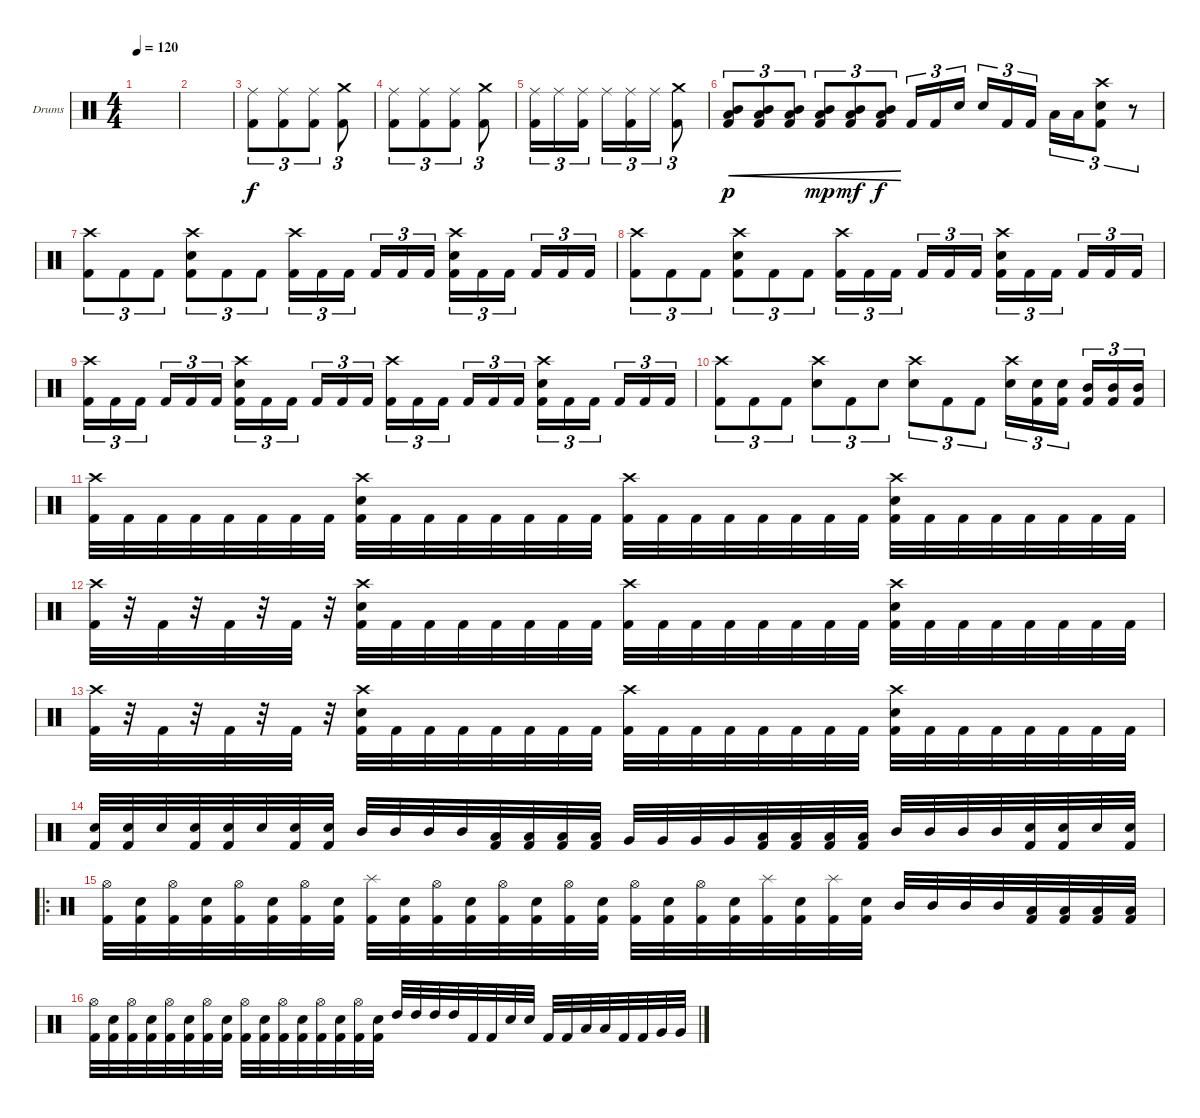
\defaultSystemsLayout 4
\bracketExtendMode groupsimilarinstruments
\firstSystemTrackNameOrientation horizontal
\otherSystemsTrackNameOrientation horizontal
\track ("Drumkit" "Drums") {instrument percussion}
\staff {score}
\articulation defaults
\ts (4 4)
\tempo 120
\clef neutral
\ks c
|
|
("Kick (hit) 2" "Ride (middle)").8{tu (3 2)} ("Kick (hit) 2" "Ride (middle)").8{tu (3 2)} ("Kick (hit) 2" "Ride (middle)").8{tu (3 2)} ("Kick (hit) 2" "Crash medium (hit)").8{tu (3 2)} |
("Kick (hit) 2" "Ride (middle)").8{tu (3 2)} ("Kick (hit) 2" "Ride (middle)").8{tu (3 2)} ("Kick (hit) 2" "Ride (middle)").8{tu (3 2)} ("Kick (hit) 2" "Crash medium (hit)").8{tu (3 2)} |
("Ride (middle)" "Kick (hit) 2").16{tu (3 2) dy f} "Ride (middle)".16{tu (3 2)} ("Ride (middle)" "Kick (hit) 2").16{tu (3 2)} "Ride (middle)".16{tu (3 2)} ("Ride (middle)" "Kick (hit) 2").16{tu (3 2)} "Ride (middle)".16{tu (3 2)} ("Kick (hit) 2" "Crash medium (hit)").8{tu (3 2)} |
("Kick (hit) 2" "Low Tom (hit)" "Mid Tom (hit)").8{tu (3 2) cre dy p} ("Kick (hit) 2" "Low Tom (hit)" "Mid Tom (hit)").8{tu (3 2) cre} ("Kick (hit) 2" "Low Tom (hit)" "Mid Tom (hit)").8{tu (3 2) cre} ("Kick (hit) 2" "Low Tom (hit)" "Mid Tom (hit)").8{tu (3 2) cre dy mp} ("Kick (hit) 2" "Low Tom (hit)" "Mid Tom (hit)").8{tu (3 2) cre dy mf} ("Kick (hit) 2" "Low Tom (hit)" "Mid Tom (hit)").8{tu (3 2) cre dy f} "Kick (hit) 2".16{tu (3 2)} "Kick (hit) 2".16{tu (3 2)} "Snare (hit) 2".16{tu (3 2)} "Snare (hit) 2".16{tu (3 2)} "Kick (hit) 2".16{tu (3 2)} "Kick (hit) 2".16{tu (3 2)} "Low Tom (hit)".16{tu (3 2)} "Low Tom (hit)".16{tu (3 2)} ("Kick (hit) 2" "Snare (hit) 2" "Crash high (hit)").8{tu (3 2)} r.8{tu (3 2)} |
("Kick (hit) 2" "Crash high (hit)").8{tu (3 2)} "Kick (hit) 2".8{tu (3 2)} "Kick (hit) 2".8{tu (3 2)} ("Kick (hit) 2" "Snare (hit) 2" "Crash high (hit)").8{tu (3 2)} "Kick (hit) 2".8{tu (3 2)} "Kick (hit) 2".8{tu (3 2)} ("Kick (hit) 2" "Crash high (hit)").16{tu (3 2)} "Kick (hit) 2".16{tu (3 2)} "Kick (hit) 2".16{tu (3 2)} "Kick (hit) 2".16{tu (3 2)} "Kick (hit) 2".16{tu (3 2)} "Kick (hit) 2".16{tu (3 2)} ("Kick (hit) 2" "Snare (hit) 2" "Crash high (hit)").16{tu (3 2)} "Kick (hit) 2".16{tu (3 2)} "Kick (hit) 2".16{tu (3 2)} "Kick (hit) 2".16{tu (3 2)} "Kick (hit) 2".16{tu (3 2)} "Kick (hit) 2".16{tu (3 2)} |
("Kick (hit) 2" "Crash high (hit)").8{tu (3 2)} "Kick (hit) 2".8{tu (3 2)} "Kick (hit) 2".8{tu (3 2)} ("Kick (hit) 2" "Snare (hit) 2" "Crash high (hit)").8{tu (3 2)} "Kick (hit) 2".8{tu (3 2)} "Kick (hit) 2".8{tu (3 2)} ("Kick (hit) 2" "Crash high (hit)").16{tu (3 2)} "Kick (hit) 2".16{tu (3 2)} "Kick (hit) 2".16{tu (3 2)} "Kick (hit) 2".16{tu (3 2)} "Kick (hit) 2".16{tu (3 2)} "Kick (hit) 2".16{tu (3 2)} ("Kick (hit) 2" "Snare (hit) 2" "Crash high (hit)").16{tu (3 2)} "Kick (hit) 2".16{tu (3 2)} "Kick (hit) 2".16{tu (3 2)} "Kick (hit) 2".16{tu (3 2)} "Kick (hit) 2".16{tu (3 2)} "Kick (hit) 2".16{tu (3 2)} |
("Kick (hit) 2" "Crash high (hit)").16{tu (3 2)} "Kick (hit) 2".16{tu (3 2)} "Kick (hit) 2".16{tu (3 2)} "Kick (hit) 2".16{tu (3 2)} "Kick (hit) 2".16{tu (3 2)} "Kick (hit) 2".16{tu (3 2)} ("Kick (hit) 2" "Snare (hit) 2" "Crash high (hit)").16{tu (3 2)} "Kick (hit) 2".16{tu (3 2)} "Kick (hit) 2".16{tu (3 2)} "Kick (hit) 2".16{tu (3 2)} "Kick (hit) 2".16{tu (3 2)} "Kick (hit) 2".16{tu (3 2)} ("Kick (hit) 2" "Crash high (hit)").16{tu (3 2)} "Kick (hit) 2".16{tu (3 2)} "Kick (hit) 2".16{tu (3 2)} "Kick (hit) 2".16{tu (3 2)} "Kick (hit) 2".16{tu (3 2)} "Kick (hit) 2".16{tu (3 2)} ("Kick (hit) 2" "Snare (hit) 2" "Crash high (hit)").16{tu (3 2)} "Kick (hit) 2".16{tu (3 2)} "Kick (hit) 2".16{tu (3 2)} "Kick (hit) 2".16{tu (3 2)} "Kick (hit) 2".16{tu (3 2)} "Kick (hit) 2".16{tu (3 2)} |
("Kick (hit) 2" "Crash high (hit)").8{tu (3 2)} "Kick (hit) 2".8{tu (3 2)} "Kick (hit) 2".8{tu (3 2)} ("Snare (hit) 2" "Crash high (hit)").8{tu (3 2)} "Kick (hit) 2".8{tu (3 2)} "Snare (hit) 2".8{tu (3 2)} ("Crash high (hit)" "Snare (hit) 2").8{tu (3 2)} "Kick (hit) 2".8{tu (3 2)} "Kick (hit) 2".8{tu (3 2)} ("Snare (hit) 2" "Crash high (hit)").16{tu (3 2)} ("Kick (hit) 2" "Snare (hit) 2").16{tu (3 2)} ("Kick (hit) 2" "Snare (hit) 2").16{tu (3 2)} ("Kick (hit) 2" "Mid Tom (hit)").16{tu (3 2)} ("Kick (hit) 2" "Mid Tom (hit)").16{tu (3 2)} ("Kick (hit) 2" "Mid Tom (hit)").16{tu (3 2)} |
("Kick (hit) 2" "Crash high (hit)").32 "Kick (hit) 2".32 "Kick (hit) 2".32 "Kick (hit) 2".32 "Kick (hit) 2".32 "Kick (hit) 2".32 "Kick (hit) 2".32 "Kick (hit) 2".32 ("Kick (hit) 2" "Crash high (hit)" "Snare (hit) 2").32 "Kick (hit) 2".32 "Kick (hit) 2".32 "Kick (hit) 2".32 "Kick (hit) 2".32 "Kick (hit) 2".32 "Kick (hit) 2".32 "Kick (hit) 2".32 ("Kick (hit) 2" "Crash high (hit)").32 "Kick (hit) 2".32 "Kick (hit) 2".32 "Kick (hit) 2".32 "Kick (hit) 2".32 "Kick (hit) 2".32 "Kick (hit) 2".32 "Kick (hit) 2".32 ("Kick (hit) 2" "Crash high (hit)" "Snare (hit) 2").32 "Kick (hit) 2".32 "Kick (hit) 2".32 "Kick (hit) 2".32 "Kick (hit) 2".32 "Kick (hit) 2".32 "Kick (hit) 2".32 "Kick (hit) 2".32 |
("Kick (hit) 2" "Crash high (hit)").32 r.32 "Kick (hit) 2".32 r.32 "Kick (hit) 2".32 r.32 "Kick (hit) 2".32 r.32 ("Kick (hit) 2" "Crash high (hit)" "Snare (hit) 2").32 "Kick (hit) 2".32 "Kick (hit) 2".32 "Kick (hit) 2".32 "Kick (hit) 2".32 "Kick (hit) 2".32 "Kick (hit) 2".32 "Kick (hit) 2".32 ("Kick (hit) 2" "Crash high (hit)").32 "Kick (hit) 2".32 "Kick (hit) 2".32 "Kick (hit) 2".32 "Kick (hit) 2".32 "Kick (hit) 2".32 "Kick (hit) 2".32 "Kick (hit) 2".32 ("Kick (hit) 2" "Crash high (hit)" "Snare (hit) 2").32 "Kick (hit) 2".32 "Kick (hit) 2".32 "Kick (hit) 2".32 "Kick (hit) 2".32 "Kick (hit) 2".32 "Kick (hit) 2".32 "Kick (hit) 2".32 |
("Kick (hit) 2" "Crash high (hit)").32 r.32 "Kick (hit) 2".32 r.32 "Kick (hit) 2".32 r.32 "Kick (hit) 2".32 r.32 ("Kick (hit) 2" "Crash high (hit)" "Snare (hit) 2").32 "Kick (hit) 2".32 "Kick (hit) 2".32 "Kick (hit) 2".32 "Kick (hit) 2".32 "Kick (hit) 2".32 "Kick (hit) 2".32 "Kick (hit) 2".32 ("Kick (hit) 2" "Crash high (hit)").32 "Kick (hit) 2".32 "Kick (hit) 2".32 "Kick (hit) 2".32 "Kick (hit) 2".32 "Kick (hit) 2".32 "Kick (hit) 2".32 "Kick (hit) 2".32 ("Kick (hit) 2" "Crash high (hit)" "Snare (hit) 2").32 "Kick (hit) 2".32 "Kick (hit) 2".32 "Kick (hit) 2".32 "Kick (hit) 2".32 "Kick (hit) 2".32 "Kick (hit) 2".32 "Kick (hit) 2".32 |
("Snare (hit) 2" "Kick (hit) 2").32 ("Snare (hit) 2" "Kick (hit) 2").32 "Snare (hit) 2".32 ("Snare (hit) 2" "Kick (hit) 2").32 ("Snare (hit) 2" "Kick (hit) 2").32 "Snare (hit) 2".32 ("Snare (hit) 2" "Kick (hit) 2").32 ("Snare (hit) 2" "Kick (hit) 2").32 "Mid Tom (hit)".32 "Mid Tom (hit)".32 "Mid Tom (hit)".32 "Mid Tom (hit)".32 ("Low Tom (hit)" "Kick (hit) 2").32 ("Low Tom (hit)" "Kick (hit) 2").32 ("Low Tom (hit)" "Kick (hit) 2").32 ("Low Tom (hit)" "Kick (hit) 2").32 "Very Low Tom (hit)".32 "Very Low Tom (hit)".32 "Very Low Tom (hit)".32 "Very Low Tom (hit)".32 ("Low Tom (hit)" "Kick (hit) 2").32 ("Low Tom (hit)" "Kick (hit) 2").32 ("Low Tom (hit)" "Kick (hit) 2").32 ("Low Tom (hit)" "Kick (hit) 2").32 "Mid Tom (hit)".32 "Mid Tom (hit)".32 "Mid Tom (hit)".32 "Mid Tom (hit)".32 ("Snare (hit) 2" "Kick (hit) 2").32 ("Snare (hit) 2" "Kick (hit) 2").32 "Snare (hit) 2".32 ("Snare (hit) 2" "Kick (hit) 2").32 |
\ro
("Kick (hit) 2" "Hi-Hat (open)").32 ("Kick (hit) 2" "Snare (hit) 2").32 ("Kick (hit) 2" "Hi-Hat (open)").32 ("Kick (hit) 2" "Snare (hit) 2").32 ("Kick (hit) 2" "Hi-Hat (open)").32 ("Kick (hit) 2" "Snare (hit) 2").32 ("Kick (hit) 2" "Hi-Hat (open)").32 ("Kick (hit) 2" "Snare (hit) 2").32 ("Kick (hit) 2" "Splash (hit)").32 ("Kick (hit) 2" "Snare (hit) 2").32 ("Kick (hit) 2" "Hi-Hat (open)").32 ("Kick (hit) 2" "Snare (hit) 2").32 ("Kick (hit) 2" "Hi-Hat (open)").32 ("Kick (hit) 2" "Snare (hit) 2").32 ("Kick (hit) 2" "Hi-Hat (open)").32 ("Kick (hit) 2" "Snare (hit) 2").32 ("Kick (hit) 2" "Hi-Hat (open)").32 ("Kick (hit) 2" "Snare (hit) 2").32 ("Kick (hit) 2" "Hi-Hat (open)").32 ("Kick (hit) 2" "Snare (hit) 2").32 ("Kick (hit) 2" "Splash (hit)").32 ("Kick (hit) 2" "Snare (hit) 2").32 ("Kick (hit) 2" "Splash (hit)").32 ("Kick (hit) 2" "Snare (hit) 2").32 "Mid Tom (hit)".32 "Mid Tom (hit)".32 "Mid Tom (hit)".32 "Mid Tom (hit)".32 ("Low Tom (hit)" "Kick (hit) 2").32 ("Low Tom (hit)" "Kick (hit) 2").32 ("Low Tom (hit)" "Kick (hit) 2").32 ("Low Tom (hit)" "Kick (hit) 2").32 |
("Kick (hit) 2" "Hi-Hat (open)").32 ("Kick (hit) 2" "Snare (hit) 2").32 ("Kick (hit) 2" "Hi-Hat (open)").32 ("Kick (hit) 2" "Snare (hit) 2").32 ("Kick (hit) 2" "Hi-Hat (open)").32 ("Kick (hit) 2" "Snare (hit) 2").32 ("Kick (hit) 2" "Hi-Hat (open)").32 ("Kick (hit) 2" "Snare (hit) 2").32 ("Kick (hit) 2" "Hi-Hat (open)").32 ("Kick (hit) 2" "Snare (hit) 2").32 ("Kick (hit) 2" "Hi-Hat (open)").32 ("Kick (hit) 2" "Snare (hit) 2").32 ("Kick (hit) 2" "Hi-Hat (open)").32 ("Kick (hit) 2" "Snare (hit) 2").32 ("Kick (hit) 2" "Hi-Hat (open)").32 ("Kick (hit) 2" "Snare (hit) 2").32 "High Tom (hit)".32 "High Tom (hit)".32 "High Tom (hit)".32 "High Tom (hit)".32 "Kick (hit) 2".32 "Kick (hit) 2".32 "Snare (hit) 2".32 "Snare (hit) 2".32 "Kick (hit) 2".32 "Kick (hit) 2".32 "Low Tom (hit)".32 "Low Tom (hit)".32 "Kick (hit) 2".32 "Kick (hit) 2".32 "Very Low Tom (hit)".32 "Very Low Tom (hit)".32
